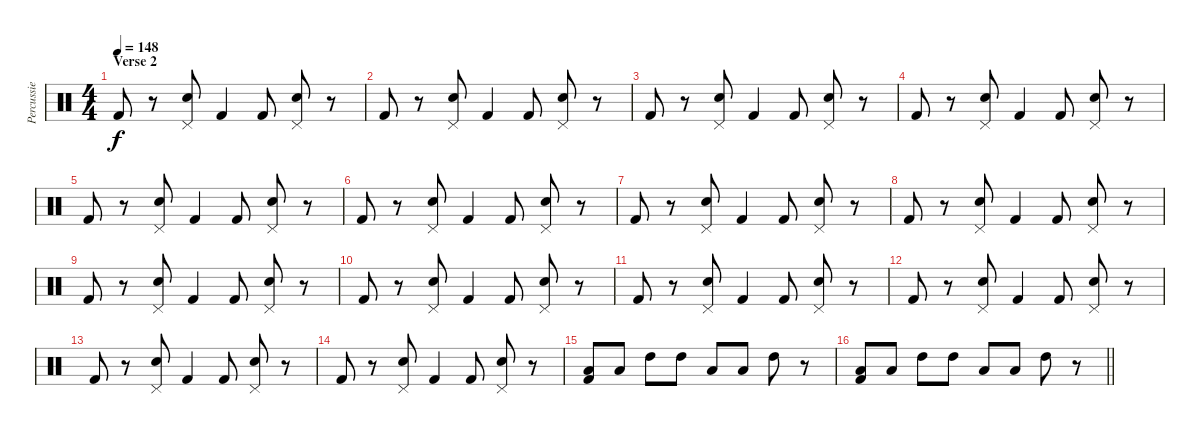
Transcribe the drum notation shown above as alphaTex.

\track ("Percussie" "Percussie") {instrument percussion}
\staff {score}
\articulation defaults
\ts (4 4)
\section ("" "Verse 2")
\tempo 148
\clef neutral
\ks c "Kick (hit) 2".8{dy f}
r.8 ("Pedal Hi-Hat (hit)" "Electric Snare (hit)").8 "Kick (hit) 2".4 "Kick (hit) 2".8 ("Pedal Hi-Hat (hit)" "Electric Snare (hit)").8 r.8 |
"Kick (hit) 2".8 r.8 ("Pedal Hi-Hat (hit)" "Electric Snare (hit)").8 "Kick (hit) 2".4 "Kick (hit) 2".8 ("Pedal Hi-Hat (hit)" "Electric Snare (hit)").8 r.8 |
"Kick (hit) 2".8 r.8 ("Pedal Hi-Hat (hit)" "Electric Snare (hit)").8 "Kick (hit) 2".4 "Kick (hit) 2".8 ("Pedal Hi-Hat (hit)" "Electric Snare (hit)").8 r.8 |
"Kick (hit) 2".8 r.8 ("Pedal Hi-Hat (hit)" "Electric Snare (hit)").8 "Kick (hit) 2".4 "Kick (hit) 2".8 ("Pedal Hi-Hat (hit)" "Electric Snare (hit)").8 r.8 |
"Kick (hit) 2".8 r.8 ("Pedal Hi-Hat (hit)" "Electric Snare (hit)").8 "Kick (hit) 2".4 "Kick (hit) 2".8 ("Pedal Hi-Hat (hit)" "Electric Snare (hit)").8 r.8 |
"Kick (hit) 2".8 r.8 ("Pedal Hi-Hat (hit)" "Electric Snare (hit)").8 "Kick (hit) 2".4 "Kick (hit) 2".8 ("Pedal Hi-Hat (hit)" "Electric Snare (hit)").8 r.8 |
"Kick (hit) 2".8 r.8 ("Pedal Hi-Hat (hit)" "Electric Snare (hit)").8 "Kick (hit) 2".4 "Kick (hit) 2".8 ("Pedal Hi-Hat (hit)" "Electric Snare (hit)").8 r.8 |
"Kick (hit) 2".8 r.8 ("Pedal Hi-Hat (hit)" "Electric Snare (hit)").8 "Kick (hit) 2".4 "Kick (hit) 2".8 ("Pedal Hi-Hat (hit)" "Electric Snare (hit)").8 r.8 |
"Kick (hit) 2".8 r.8 ("Pedal Hi-Hat (hit)" "Electric Snare (hit)").8 "Kick (hit) 2".4 "Kick (hit) 2".8 ("Pedal Hi-Hat (hit)" "Electric Snare (hit)").8 r.8 |
"Kick (hit) 2".8 r.8 ("Pedal Hi-Hat (hit)" "Electric Snare (hit)").8 "Kick (hit) 2".4 "Kick (hit) 2".8 ("Pedal Hi-Hat (hit)" "Electric Snare (hit)").8 r.8 |
"Kick (hit) 2".8 r.8 ("Pedal Hi-Hat (hit)" "Electric Snare (hit)").8 "Kick (hit) 2".4 "Kick (hit) 2".8 ("Pedal Hi-Hat (hit)" "Electric Snare (hit)").8 r.8 |
"Kick (hit) 2".8 r.8 ("Pedal Hi-Hat (hit)" "Electric Snare (hit)").8 "Kick (hit) 2".4 "Kick (hit) 2".8 ("Pedal Hi-Hat (hit)" "Electric Snare (hit)").8 r.8 |
"Kick (hit) 2".8 r.8 ("Pedal Hi-Hat (hit)" "Electric Snare (hit)").8 "Kick (hit) 2".4 "Kick (hit) 2".8 ("Pedal Hi-Hat (hit)" "Electric Snare (hit)").8 r.8 |
"Kick (hit) 2".8 r.8 ("Pedal Hi-Hat (hit)" "Electric Snare (hit)").8 "Kick (hit) 2".4 "Kick (hit) 2".8 ("Pedal Hi-Hat (hit)" "Electric Snare (hit)").8 r.8 |
("Low Tom (hit)" "Kick (hit) 2").8 "Low Tom (hit)".8 "High Tom (hit)".8 "High Tom (hit)".8 "Low Tom (hit)".8 "Low Tom (hit)".8 "High Tom (hit)".8 r.8 |
\barLineRight lightlight
("Low Tom (hit)" "Kick (hit) 2").8 "Low Tom (hit)".8 "High Tom (hit)".8 "High Tom (hit)".8 "Low Tom (hit)".8 "Low Tom (hit)".8 "High Tom (hit)".8 r.8
